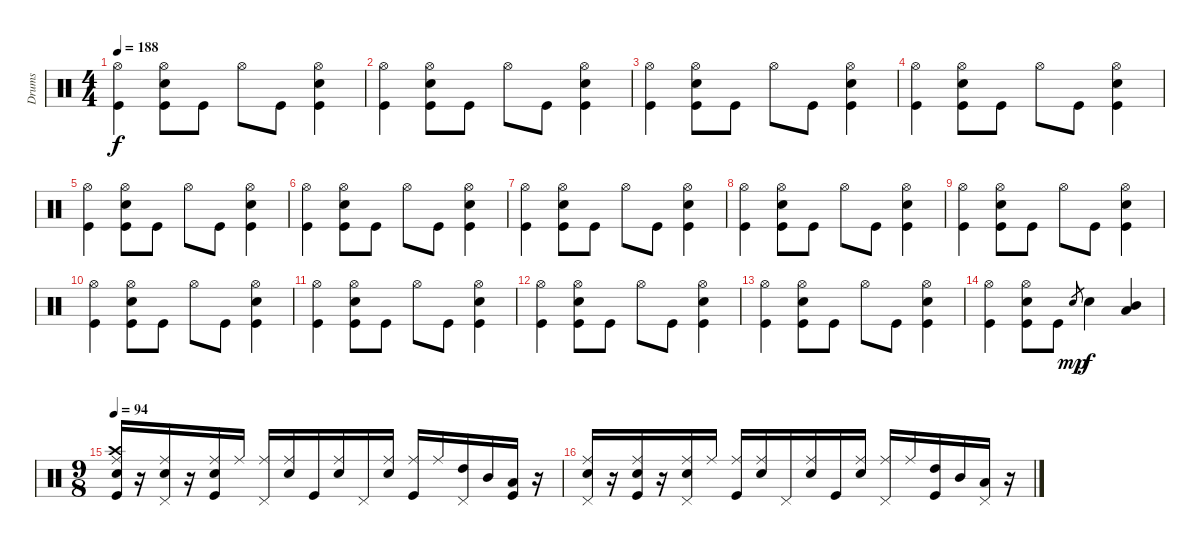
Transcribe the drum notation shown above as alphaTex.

\track ("Drums" "Drums") {instrument percussion}
\staff {score}
\articulation defaults
\ts (4 4)
\tempo 188
\clef neutral
\ks c
("Hi-Hat (open)" "Kick (hit)").4{dy f} ("Hi-Hat (open)" "Snare (hit) 2" "Kick (hit)").8 "Kick (hit)".8 "Hi-Hat (open)".8 "Kick (hit)".8 ("Hi-Hat (open)" "Electric Snare (hit)" "Kick (hit)").4 |
("Hi-Hat (open)" "Kick (hit)").4 ("Hi-Hat (open)" "Snare (hit) 2" "Kick (hit)").8 "Kick (hit)".8 "Hi-Hat (open)".8 "Kick (hit)".8 ("Hi-Hat (open)" "Electric Snare (hit)" "Kick (hit)").4 |
("Hi-Hat (open)" "Kick (hit)").4 ("Hi-Hat (open)" "Snare (hit) 2" "Kick (hit)").8 "Kick (hit)".8 "Hi-Hat (open)".8 "Kick (hit)".8 ("Hi-Hat (open)" "Electric Snare (hit)" "Kick (hit)").4 |
("Hi-Hat (open)" "Kick (hit)").4 ("Hi-Hat (open)" "Snare (hit) 2" "Kick (hit)").8 "Kick (hit)".8 "Hi-Hat (open)".8 "Kick (hit)".8 ("Hi-Hat (open)" "Electric Snare (hit)" "Kick (hit)").4 |
("Hi-Hat (open)" "Kick (hit)").4 ("Hi-Hat (open)" "Snare (hit) 2" "Kick (hit)").8 "Kick (hit)".8 "Hi-Hat (open)".8 "Kick (hit)".8 ("Hi-Hat (open)" "Electric Snare (hit)" "Kick (hit)").4 |
("Hi-Hat (open)" "Kick (hit)").4 ("Hi-Hat (open)" "Snare (hit) 2" "Kick (hit)").8 "Kick (hit)".8 "Hi-Hat (open)".8 "Kick (hit)".8 ("Hi-Hat (open)" "Electric Snare (hit)" "Kick (hit)").4 |
("Hi-Hat (open)" "Kick (hit)").4 ("Hi-Hat (open)" "Snare (hit) 2" "Kick (hit)").8 "Kick (hit)".8 "Hi-Hat (open)".8 "Kick (hit)".8 ("Hi-Hat (open)" "Electric Snare (hit)" "Kick (hit)").4 |
("Hi-Hat (open)" "Kick (hit)").4 ("Hi-Hat (open)" "Snare (hit) 2" "Kick (hit)").8 "Kick (hit)".8 "Hi-Hat (open)".8 "Kick (hit)".8 ("Hi-Hat (open)" "Electric Snare (hit)" "Kick (hit)").4 |
("Hi-Hat (open)" "Kick (hit)").4 ("Hi-Hat (open)" "Snare (hit) 2" "Kick (hit)").8 "Kick (hit)".8 "Hi-Hat (open)".8 "Kick (hit)".8 ("Hi-Hat (open)" "Electric Snare (hit)" "Kick (hit)").4 |
("Hi-Hat (open)" "Kick (hit)").4 ("Hi-Hat (open)" "Snare (hit) 2" "Kick (hit)").8 "Kick (hit)".8 "Hi-Hat (open)".8 "Kick (hit)".8 ("Hi-Hat (open)" "Electric Snare (hit)" "Kick (hit)").4 |
("Hi-Hat (open)" "Kick (hit)").4 ("Hi-Hat (open)" "Snare (hit) 2" "Kick (hit)").8 "Kick (hit)".8 "Hi-Hat (open)".8 "Kick (hit)".8 ("Hi-Hat (open)" "Electric Snare (hit)" "Kick (hit)").4 |
("Hi-Hat (open)" "Kick (hit)").4 ("Hi-Hat (open)" "Snare (hit) 2" "Kick (hit)").8 "Kick (hit)".8 "Hi-Hat (open)".8 "Kick (hit)".8 ("Hi-Hat (open)" "Electric Snare (hit)" "Kick (hit)").4 |
("Hi-Hat (open)" "Kick (hit)").4 ("Hi-Hat (open)" "Snare (hit) 2" "Kick (hit)").8 "Kick (hit)".8 "Hi-Hat (open)".8 "Kick (hit)".8 ("Hi-Hat (open)" "Electric Snare (hit)" "Kick (hit)").4 |
("Hi-Hat (open)" "Kick (hit)").4 ("Hi-Hat (open)" "Snare (hit) 2" "Kick (hit)").8 "Kick (hit)".8 "Electric Snare (hit)".8{gr dy mp} "Electric Snare (hit)".4{dy f} ("Mid Tom (hit)" "Low Tom (hit)").4 |
\ts (9 8)
\tempo 94
("Crash high (hit)" "Ride (middle)" "Electric Snare (hit)" "Kick (hit)").16 r.16 ("Ride (middle)" "Electric Snare (hit)" "Pedal Hi-Hat (hit)").16 r.16 ("Ride (middle)" "Electric Snare (hit)" "Kick (hit)").16 "Ride (middle)".16 ("Ride (middle)" "Pedal Hi-Hat (hit)").16 ("Ride (middle)" "Electric Snare (hit)").16 "Kick (hit)".16 ("Ride (middle)" "Electric Snare (hit)").16 "Pedal Hi-Hat (hit)".16 ("Ride (middle)" "Electric Snare (hit)").16 ("Ride (middle)" "Kick (hit)").16 "Ride (middle)".16 ("High Tom (hit)" "Pedal Hi-Hat (hit)").16 "Mid Tom (hit)".16 ("Low Tom (hit)" "Kick (hit)").16 r.16 |
("Ride (middle)" "Electric Snare (hit)" "Pedal Hi-Hat (hit)").16 r.16 ("Ride (middle)" "Electric Snare (hit)" "Kick (hit)").16 r.16 ("Ride (middle)" "Electric Snare (hit)" "Pedal Hi-Hat (hit)").16 "Ride (middle)".16 ("Ride (middle)" "Kick (hit)").16 ("Ride (middle)" "Electric Snare (hit)").16 "Pedal Hi-Hat (hit)".16 ("Ride (middle)" "Electric Snare (hit)").16 "Kick (hit)".16 ("Ride (middle)" "Electric Snare (hit)").16 ("Ride (middle)" "Pedal Hi-Hat (hit)").16 "Ride (middle)".16 ("High Tom (hit)" "Kick (hit)").16 "Mid Tom (hit)".16 ("Low Tom (hit)" "Pedal Hi-Hat (hit)").16 r.16
